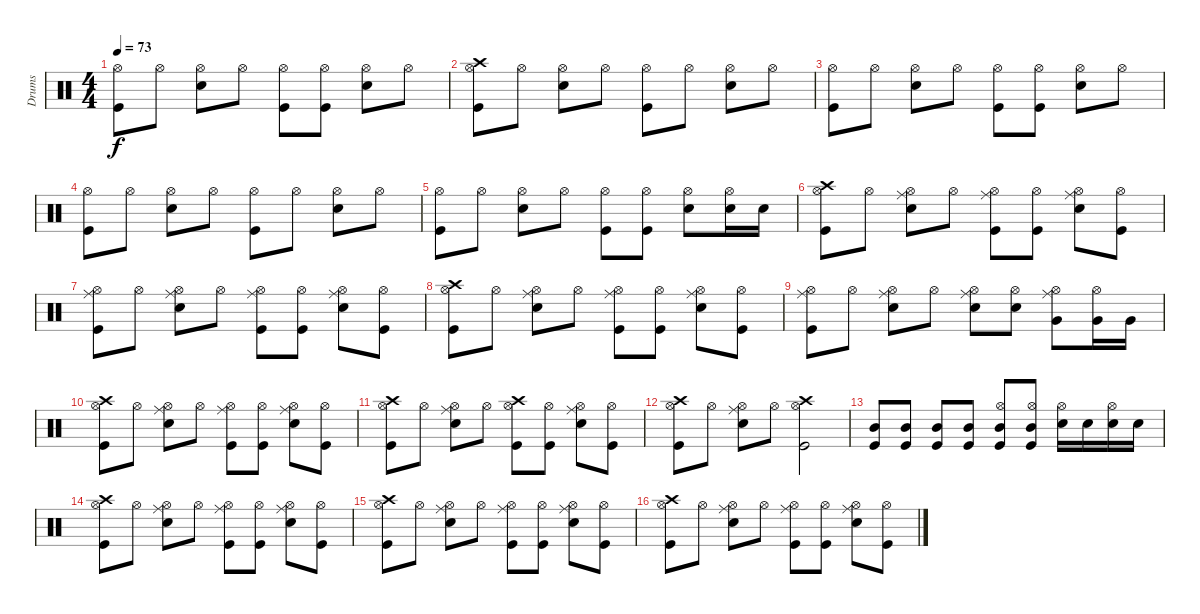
\track ("Drums" "Drums") {instrument percussion}
\staff {score}
\articulation defaults
\ts (4 4)
\tempo 73
\clef neutral
\ks c
("Kick (hit)" "Hi-Hat (open)").8{dy f} "Hi-Hat (open)".8 ("Snare (hit) 2" "Hi-Hat (open)").8 "Hi-Hat (open)".8 ("Kick (hit)" "Hi-Hat (open)").8 ("Kick (hit)" "Hi-Hat (open)").8 ("Snare (hit) 2" "Hi-Hat (open)").8 "Hi-Hat (open)".8 |
("Kick (hit)" "Hi-Hat (open)" "Crash high (hit)").8 "Hi-Hat (open)".8 ("Snare (hit) 2" "Hi-Hat (open)").8 "Hi-Hat (open)".8 ("Kick (hit)" "Hi-Hat (open)").8 "Hi-Hat (open)".8 ("Snare (hit) 2" "Hi-Hat (open)").8 "Hi-Hat (open)".8 |
("Kick (hit)" "Hi-Hat (open)").8 "Hi-Hat (open)".8 ("Snare (hit) 2" "Hi-Hat (open)").8 "Hi-Hat (open)".8 ("Kick (hit)" "Hi-Hat (open)").8 ("Kick (hit)" "Hi-Hat (open)").8 ("Snare (hit) 2" "Hi-Hat (open)").8 "Hi-Hat (open)".8 |
("Kick (hit)" "Hi-Hat (open)").8 "Hi-Hat (open)".8 ("Snare (hit) 2" "Hi-Hat (open)").8 "Hi-Hat (open)".8 ("Kick (hit)" "Hi-Hat (open)").8 "Hi-Hat (open)".8 ("Snare (hit) 2" "Hi-Hat (open)").8 "Hi-Hat (open)".8 |
("Kick (hit)" "Hi-Hat (open)").8 "Hi-Hat (open)".8 ("Snare (hit) 2" "Hi-Hat (open)").8 "Hi-Hat (open)".8 ("Kick (hit)" "Hi-Hat (open)").8 ("Kick (hit)" "Hi-Hat (open)").8 ("Snare (hit) 2" "Hi-Hat (open)").8 ("Snare (hit) 2" "Hi-Hat (open)").16 "Snare (hit) 2".16 |
("Kick (hit)" "Hi-Hat (open)" "Crash high (hit)").8 "Hi-Hat (open)".8 ("Snare (hit) 2" "Hi-Hat (open)" "Ride (middle)").8 "Hi-Hat (open)".8 ("Kick (hit)" "Hi-Hat (open)" "Ride (middle)").8 ("Kick (hit)" "Hi-Hat (open)").8 ("Snare (hit) 2" "Hi-Hat (open)" "Ride (middle)").8 ("Kick (hit)" "Hi-Hat (open)").8 |
("Kick (hit)" "Hi-Hat (open)" "Ride (middle)").8 "Hi-Hat (open)".8 ("Snare (hit) 2" "Hi-Hat (open)" "Ride (middle)").8 "Hi-Hat (open)".8 ("Kick (hit)" "Hi-Hat (open)" "Ride (middle)").8 ("Kick (hit)" "Hi-Hat (open)").8 ("Snare (hit) 2" "Hi-Hat (open)" "Ride (middle)").8 ("Kick (hit)" "Hi-Hat (open)").8 |
("Kick (hit)" "Hi-Hat (open)" "Crash high (hit)").8 "Hi-Hat (open)".8 ("Snare (hit) 2" "Hi-Hat (open)" "Ride (middle)").8 "Hi-Hat (open)".8 ("Kick (hit)" "Hi-Hat (open)" "Ride (middle)").8 ("Kick (hit)" "Hi-Hat (open)").8 ("Snare (hit) 2" "Hi-Hat (open)" "Ride (middle)").8 ("Kick (hit)" "Hi-Hat (open)").8 |
("Kick (hit)" "Hi-Hat (open)" "Ride (middle)").8 "Hi-Hat (open)".8 ("Snare (hit) 2" "Hi-Hat (open)" "Ride (middle)").8 "Hi-Hat (open)".8 ("Snare (hit) 2" "Hi-Hat (open)" "Ride (middle)").8 ("Snare (hit) 2" "Hi-Hat (open)").8 ("Very Low Tom (hit)" "Hi-Hat (open)" "Ride (middle)").8 ("Very Low Tom (hit)" "Hi-Hat (open)").16 "Very Low Tom (hit)".16 |
("Kick (hit)" "Hi-Hat (open)" "Crash high (hit)").8 "Hi-Hat (open)".8 ("Snare (hit) 2" "Hi-Hat (open)" "Ride (middle)").8 "Hi-Hat (open)".8 ("Kick (hit)" "Hi-Hat (open)" "Ride (middle)").8 ("Kick (hit)" "Hi-Hat (open)").8 ("Snare (hit) 2" "Hi-Hat (open)" "Ride (middle)").8 ("Kick (hit)" "Hi-Hat (open)").8 |
("Kick (hit)" "Hi-Hat (open)" "Crash high (hit)").8 "Hi-Hat (open)".8 ("Snare (hit) 2" "Hi-Hat (open)" "Ride (middle)").8 "Hi-Hat (open)".8 ("Kick (hit)" "Hi-Hat (open)" "Crash high (hit)").8 ("Kick (hit)" "Hi-Hat (open)").8 ("Snare (hit) 2" "Hi-Hat (open)" "Ride (middle)").8 ("Kick (hit)" "Hi-Hat (open)").8 |
("Kick (hit)" "Hi-Hat (open)" "Crash high (hit)").8 "Hi-Hat (open)".8 ("Snare (hit) 2" "Hi-Hat (open)" "Ride (middle)").8 "Hi-Hat (open)".8 ("Kick (hit)" "Hi-Hat (open)" "Crash high (hit)").2 |
("Kick (hit)" "Mid Tom (hit)").8 ("Kick (hit)" "Mid Tom (hit)").8 ("Kick (hit)" "Mid Tom (hit)").8 ("Kick (hit)" "Mid Tom (hit)").8 ("Kick (hit)" "Mid Tom (hit)" "Hi-Hat (open)").8 ("Kick (hit)" "Mid Tom (hit)" "Hi-Hat (open)").8 ("Snare (hit) 2" "Hi-Hat (open)").16 "Snare (hit) 2".16 ("Snare (hit) 2" "Hi-Hat (open)").16 "Snare (hit) 2".16 |
("Kick (hit)" "Hi-Hat (open)" "Crash high (hit)").8 "Hi-Hat (open)".8 ("Snare (hit) 2" "Hi-Hat (open)" "Ride (middle)").8 "Hi-Hat (open)".8 ("Kick (hit)" "Hi-Hat (open)" "Ride (middle)").8 ("Kick (hit)" "Hi-Hat (open)").8 ("Snare (hit) 2" "Hi-Hat (open)" "Ride (middle)").8 ("Kick (hit)" "Hi-Hat (open)").8 |
("Kick (hit)" "Hi-Hat (open)" "Crash high (hit)").8 "Hi-Hat (open)".8 ("Snare (hit) 2" "Hi-Hat (open)" "Ride (middle)").8 "Hi-Hat (open)".8 ("Kick (hit)" "Hi-Hat (open)" "Ride (middle)").8 ("Kick (hit)" "Hi-Hat (open)").8 ("Snare (hit) 2" "Hi-Hat (open)" "Ride (middle)").8 ("Kick (hit)" "Hi-Hat (open)").8 |
("Kick (hit)" "Hi-Hat (open)" "Crash high (hit)").8 "Hi-Hat (open)".8 ("Snare (hit) 2" "Hi-Hat (open)" "Ride (middle)").8 "Hi-Hat (open)".8 ("Kick (hit)" "Hi-Hat (open)" "Ride (middle)").8 ("Kick (hit)" "Hi-Hat (open)").8 ("Snare (hit) 2" "Hi-Hat (open)" "Ride (middle)").8 ("Kick (hit)" "Hi-Hat (open)").8
